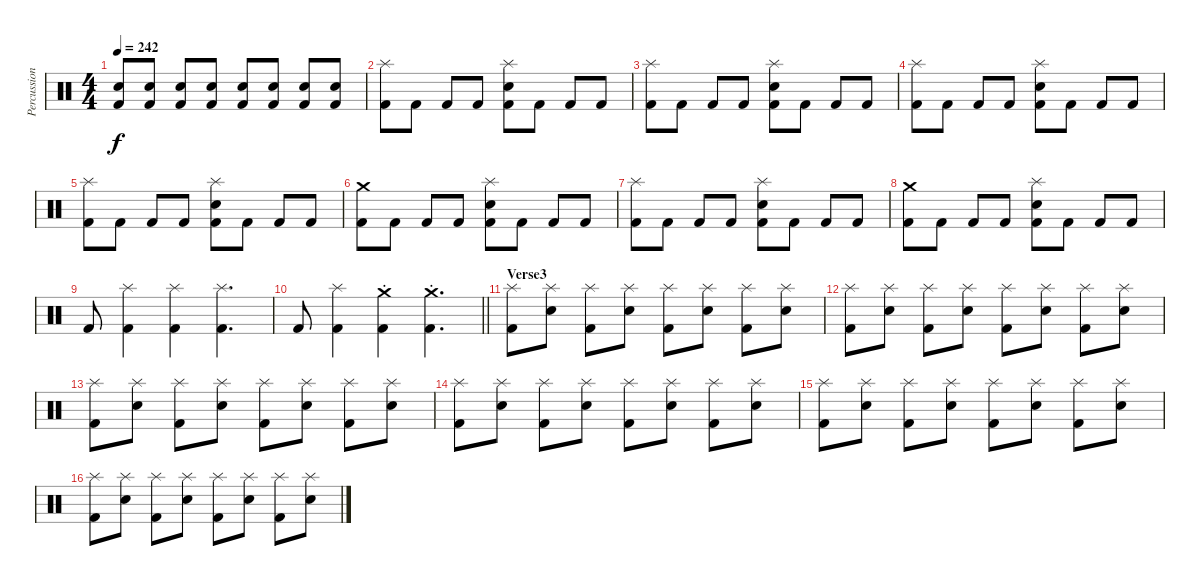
\track ("Percussion" "Percussion") {instrument percussion}
\staff {score}
\articulation defaults
\ts (4 4)
\tempo 242
\clef neutral
\ks c
("Snare (hit) 2" "Kick (hit) 2").8{dy f} ("Snare (hit) 2" "Kick (hit) 2").8 ("Snare (hit) 2" "Kick (hit) 2").8 ("Snare (hit) 2" "Kick (hit) 2").8 ("Snare (hit) 2" "Kick (hit) 2").8 ("Snare (hit) 2" "Kick (hit) 2").8 ("Snare (hit) 2" "Kick (hit) 2").8 ("Snare (hit) 2" "Kick (hit) 2").8 |
("Splash (hit)" "Kick (hit) 2").8 "Kick (hit) 2".8 "Kick (hit) 2".8 "Kick (hit) 2".8 ("Splash (hit)" "Snare (hit) 2" "Kick (hit) 2").8 "Kick (hit) 2".8 "Kick (hit) 2".8 "Kick (hit) 2".8 |
("Splash (hit)" "Kick (hit) 2").8 "Kick (hit) 2".8 "Kick (hit) 2".8 "Kick (hit) 2".8 ("Splash (hit)" "Snare (hit) 2" "Kick (hit) 2").8 "Kick (hit) 2".8 "Kick (hit) 2".8 "Kick (hit) 2".8 |
("Splash (hit)" "Kick (hit) 2").8 "Kick (hit) 2".8 "Kick (hit) 2".8 "Kick (hit) 2".8 ("Splash (hit)" "Snare (hit) 2" "Kick (hit) 2").8 "Kick (hit) 2".8 "Kick (hit) 2".8 "Kick (hit) 2".8 |
("Splash (hit)" "Kick (hit) 2").8 "Kick (hit) 2".8 "Kick (hit) 2".8 "Kick (hit) 2".8 ("Splash (hit)" "Snare (hit) 2" "Kick (hit) 2").8 "Kick (hit) 2".8 "Kick (hit) 2".8 "Kick (hit) 2".8 |
("Crash medium (hit)" "Kick (hit) 2").8 "Kick (hit) 2".8 "Kick (hit) 2".8 "Kick (hit) 2".8 ("Splash (hit)" "Snare (hit) 2" "Kick (hit) 2").8 "Kick (hit) 2".8 "Kick (hit) 2".8 "Kick (hit) 2".8 |
("Splash (hit)" "Kick (hit) 2").8 "Kick (hit) 2".8 "Kick (hit) 2".8 "Kick (hit) 2".8 ("Splash (hit)" "Snare (hit) 2" "Kick (hit) 2").8 "Kick (hit) 2".8 "Kick (hit) 2".8 "Kick (hit) 2".8 |
("Crash medium (hit)" "Kick (hit) 2").8 "Kick (hit) 2".8 "Kick (hit) 2".8 "Kick (hit) 2".8 ("Splash (hit)" "Snare (hit) 2" "Kick (hit) 2").8 "Kick (hit) 2".8 "Kick (hit) 2".8 "Kick (hit) 2".8 |
"Kick (hit) 2".8 ("Splash (hit)" "Kick (hit) 2").4 ("Splash (hit)" "Kick (hit) 2").4 ("Splash (hit)" "Kick (hit) 2").4{d} |
\barLineRight lightlight "Kick (hit) 2".8
("Splash (hit)" "Kick (hit) 2").4 ("Crash medium (hit)"{st} "Kick (hit) 2").4 ("Crash medium (hit)"{st} "Kick (hit) 2").4{d} |
\section ("" "Verse3")
("Splash (hit)" "Kick (hit) 2").8 ("Splash (hit)" "Snare (hit) 2").8 ("Splash (hit)" "Kick (hit) 2").8 ("Splash (hit)" "Snare (hit) 2").8 ("Splash (hit)" "Kick (hit) 2").8 ("Splash (hit)" "Snare (hit) 2").8 ("Splash (hit)" "Kick (hit) 2").8 ("Splash (hit)" "Snare (hit) 2").8 |
("Splash (hit)" "Kick (hit) 2").8 ("Splash (hit)" "Snare (hit) 2").8 ("Splash (hit)" "Kick (hit) 2").8 ("Splash (hit)" "Snare (hit) 2").8 ("Splash (hit)" "Kick (hit) 2").8 ("Splash (hit)" "Snare (hit) 2").8 ("Splash (hit)" "Kick (hit) 2").8 ("Splash (hit)" "Snare (hit) 2").8 |
("Splash (hit)" "Kick (hit) 2").8 ("Splash (hit)" "Snare (hit) 2").8 ("Splash (hit)" "Kick (hit) 2").8 ("Splash (hit)" "Snare (hit) 2").8 ("Splash (hit)" "Kick (hit) 2").8 ("Splash (hit)" "Snare (hit) 2").8 ("Splash (hit)" "Kick (hit) 2").8 ("Splash (hit)" "Snare (hit) 2").8 |
("Splash (hit)" "Kick (hit) 2").8 ("Splash (hit)" "Snare (hit) 2").8 ("Splash (hit)" "Kick (hit) 2").8 ("Splash (hit)" "Snare (hit) 2").8 ("Splash (hit)" "Kick (hit) 2").8 ("Splash (hit)" "Snare (hit) 2").8 ("Splash (hit)" "Kick (hit) 2").8 ("Splash (hit)" "Snare (hit) 2").8 |
("Splash (hit)" "Kick (hit) 2").8 ("Splash (hit)" "Snare (hit) 2").8 ("Splash (hit)" "Kick (hit) 2").8 ("Splash (hit)" "Snare (hit) 2").8 ("Splash (hit)" "Kick (hit) 2").8 ("Splash (hit)" "Snare (hit) 2").8 ("Splash (hit)" "Kick (hit) 2").8 ("Splash (hit)" "Snare (hit) 2").8 |
("Splash (hit)" "Kick (hit) 2").8 ("Splash (hit)" "Snare (hit) 2").8 ("Splash (hit)" "Kick (hit) 2").8 ("Splash (hit)" "Snare (hit) 2").8 ("Splash (hit)" "Kick (hit) 2").8 ("Splash (hit)" "Snare (hit) 2").8 ("Splash (hit)" "Kick (hit) 2").8 ("Splash (hit)" "Snare (hit) 2").8
